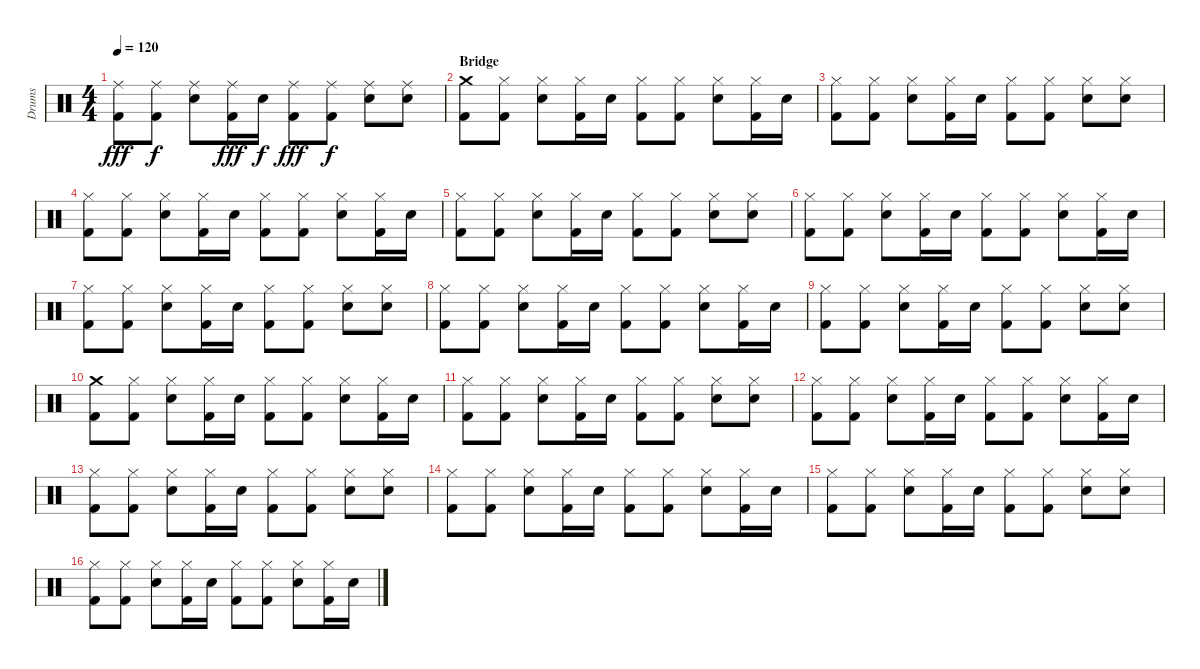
\track ("Drums" "Drums") {instrument percussion}
\staff {score}
\articulation defaults
\ts (4 4)
\tempo 120
\clef neutral
\ks c
("Ride (middle)" "Kick (hit) 2").8{dy fff} ("Ride (middle)" "Kick (hit) 2").8{dy f} ("Ride (middle)" "Electric Snare (hit)").8 ("Ride (middle)" "Kick (hit) 2").16{dy fff} "Electric Snare (hit)".16{dy f} ("Ride (middle)" "Kick (hit) 2").8{dy fff} ("Ride (middle)" "Kick (hit) 2").8{dy f} ("Ride (middle)" "Electric Snare (hit)").8 ("Ride (middle)" "Electric Snare (hit)").8 |
\section ("" "Bridge")
("Crash medium (hit)" "Kick (hit) 2").8 ("Hi-Hat (closed)" "Kick (hit) 2").8 ("Hi-Hat (closed)" "Electric Snare (hit)").8 ("Hi-Hat (closed)" "Kick (hit) 2").16 "Electric Snare (hit)".16 ("Hi-Hat (closed)" "Kick (hit) 2").8 ("Hi-Hat (closed)" "Kick (hit) 2").8 ("Hi-Hat (closed)" "Electric Snare (hit)").8 ("Hi-Hat (closed)" "Kick (hit) 2").16 "Electric Snare (hit)".16 |
("Hi-Hat (closed)" "Kick (hit) 2").8 ("Hi-Hat (closed)" "Kick (hit) 2").8 ("Hi-Hat (closed)" "Electric Snare (hit)").8 ("Hi-Hat (closed)" "Kick (hit) 2").16 "Electric Snare (hit)".16 ("Hi-Hat (closed)" "Kick (hit) 2").8 ("Hi-Hat (closed)" "Kick (hit) 2").8 ("Hi-Hat (closed)" "Electric Snare (hit)").8 ("Hi-Hat (closed)" "Electric Snare (hit)").8 |
("Hi-Hat (closed)" "Kick (hit) 2").8 ("Hi-Hat (closed)" "Kick (hit) 2").8 ("Hi-Hat (closed)" "Electric Snare (hit)").8 ("Hi-Hat (closed)" "Kick (hit) 2").16 "Electric Snare (hit)".16 ("Hi-Hat (closed)" "Kick (hit) 2").8 ("Hi-Hat (closed)" "Kick (hit) 2").8 ("Hi-Hat (closed)" "Electric Snare (hit)").8 ("Hi-Hat (closed)" "Kick (hit) 2").16 "Electric Snare (hit)".16 |
("Hi-Hat (closed)" "Kick (hit) 2").8 ("Hi-Hat (closed)" "Kick (hit) 2").8 ("Hi-Hat (closed)" "Electric Snare (hit)").8 ("Hi-Hat (closed)" "Kick (hit) 2").16 "Electric Snare (hit)".16 ("Hi-Hat (closed)" "Kick (hit) 2").8 ("Hi-Hat (closed)" "Kick (hit) 2").8 ("Hi-Hat (closed)" "Electric Snare (hit)").8 ("Hi-Hat (closed)" "Electric Snare (hit)").8 |
("Hi-Hat (closed)" "Kick (hit) 2").8 ("Hi-Hat (closed)" "Kick (hit) 2").8 ("Hi-Hat (closed)" "Electric Snare (hit)").8 ("Hi-Hat (closed)" "Kick (hit) 2").16 "Electric Snare (hit)".16 ("Hi-Hat (closed)" "Kick (hit) 2").8 ("Hi-Hat (closed)" "Kick (hit) 2").8 ("Hi-Hat (closed)" "Electric Snare (hit)").8 ("Hi-Hat (closed)" "Kick (hit) 2").16 "Electric Snare (hit)".16 |
("Hi-Hat (closed)" "Kick (hit) 2").8 ("Hi-Hat (closed)" "Kick (hit) 2").8 ("Hi-Hat (closed)" "Electric Snare (hit)").8 ("Hi-Hat (closed)" "Kick (hit) 2").16 "Electric Snare (hit)".16 ("Hi-Hat (closed)" "Kick (hit) 2").8 ("Hi-Hat (closed)" "Kick (hit) 2").8 ("Hi-Hat (closed)" "Electric Snare (hit)").8 ("Hi-Hat (closed)" "Electric Snare (hit)").8 |
("Hi-Hat (closed)" "Kick (hit) 2").8 ("Hi-Hat (closed)" "Kick (hit) 2").8 ("Hi-Hat (closed)" "Electric Snare (hit)").8 ("Hi-Hat (closed)" "Kick (hit) 2").16 "Electric Snare (hit)".16 ("Hi-Hat (closed)" "Kick (hit) 2").8 ("Hi-Hat (closed)" "Kick (hit) 2").8 ("Hi-Hat (closed)" "Electric Snare (hit)").8 ("Hi-Hat (closed)" "Kick (hit) 2").16 "Electric Snare (hit)".16 |
("Hi-Hat (closed)" "Kick (hit) 2").8 ("Hi-Hat (closed)" "Kick (hit) 2").8 ("Hi-Hat (closed)" "Electric Snare (hit)").8 ("Hi-Hat (closed)" "Kick (hit) 2").16 "Electric Snare (hit)".16 ("Hi-Hat (closed)" "Kick (hit) 2").8 ("Hi-Hat (closed)" "Kick (hit) 2").8 ("Hi-Hat (closed)" "Electric Snare (hit)").8 ("Hi-Hat (closed)" "Electric Snare (hit)").8 |
("Crash medium (hit)" "Kick (hit) 2").8 ("Hi-Hat (closed)" "Kick (hit) 2").8 ("Hi-Hat (closed)" "Electric Snare (hit)").8 ("Hi-Hat (closed)" "Kick (hit) 2").16 "Electric Snare (hit)".16 ("Hi-Hat (closed)" "Kick (hit) 2").8 ("Hi-Hat (closed)" "Kick (hit) 2").8 ("Hi-Hat (closed)" "Electric Snare (hit)").8 ("Hi-Hat (closed)" "Kick (hit) 2").16 "Electric Snare (hit)".16 |
("Hi-Hat (closed)" "Kick (hit) 2").8 ("Hi-Hat (closed)" "Kick (hit) 2").8 ("Hi-Hat (closed)" "Electric Snare (hit)").8 ("Hi-Hat (closed)" "Kick (hit) 2").16 "Electric Snare (hit)".16 ("Hi-Hat (closed)" "Kick (hit) 2").8 ("Hi-Hat (closed)" "Kick (hit) 2").8 ("Hi-Hat (closed)" "Electric Snare (hit)").8 ("Hi-Hat (closed)" "Electric Snare (hit)").8 |
("Hi-Hat (closed)" "Kick (hit) 2").8 ("Hi-Hat (closed)" "Kick (hit) 2").8 ("Hi-Hat (closed)" "Electric Snare (hit)").8 ("Hi-Hat (closed)" "Kick (hit) 2").16 "Electric Snare (hit)".16 ("Hi-Hat (closed)" "Kick (hit) 2").8 ("Hi-Hat (closed)" "Kick (hit) 2").8 ("Hi-Hat (closed)" "Electric Snare (hit)").8 ("Hi-Hat (closed)" "Kick (hit) 2").16 "Electric Snare (hit)".16 |
("Hi-Hat (closed)" "Kick (hit) 2").8 ("Hi-Hat (closed)" "Kick (hit) 2").8 ("Hi-Hat (closed)" "Electric Snare (hit)").8 ("Hi-Hat (closed)" "Kick (hit) 2").16 "Electric Snare (hit)".16 ("Hi-Hat (closed)" "Kick (hit) 2").8 ("Hi-Hat (closed)" "Kick (hit) 2").8 ("Hi-Hat (closed)" "Electric Snare (hit)").8 ("Hi-Hat (closed)" "Electric Snare (hit)").8 |
("Hi-Hat (closed)" "Kick (hit) 2").8 ("Hi-Hat (closed)" "Kick (hit) 2").8 ("Hi-Hat (closed)" "Electric Snare (hit)").8 ("Hi-Hat (closed)" "Kick (hit) 2").16 "Electric Snare (hit)".16 ("Hi-Hat (closed)" "Kick (hit) 2").8 ("Hi-Hat (closed)" "Kick (hit) 2").8 ("Hi-Hat (closed)" "Electric Snare (hit)").8 ("Hi-Hat (closed)" "Kick (hit) 2").16 "Electric Snare (hit)".16 |
("Hi-Hat (closed)" "Kick (hit) 2").8 ("Hi-Hat (closed)" "Kick (hit) 2").8 ("Hi-Hat (closed)" "Electric Snare (hit)").8 ("Hi-Hat (closed)" "Kick (hit) 2").16 "Electric Snare (hit)".16 ("Hi-Hat (closed)" "Kick (hit) 2").8 ("Hi-Hat (closed)" "Kick (hit) 2").8 ("Hi-Hat (closed)" "Electric Snare (hit)").8 ("Hi-Hat (closed)" "Electric Snare (hit)").8 |
("Hi-Hat (closed)" "Kick (hit) 2").8 ("Hi-Hat (closed)" "Kick (hit) 2").8 ("Hi-Hat (closed)" "Electric Snare (hit)").8 ("Hi-Hat (closed)" "Kick (hit) 2").16 "Electric Snare (hit)".16 ("Hi-Hat (closed)" "Kick (hit) 2").8 ("Hi-Hat (closed)" "Kick (hit) 2").8 ("Hi-Hat (closed)" "Electric Snare (hit)").8 ("Hi-Hat (closed)" "Kick (hit) 2").16 "Electric Snare (hit)".16
